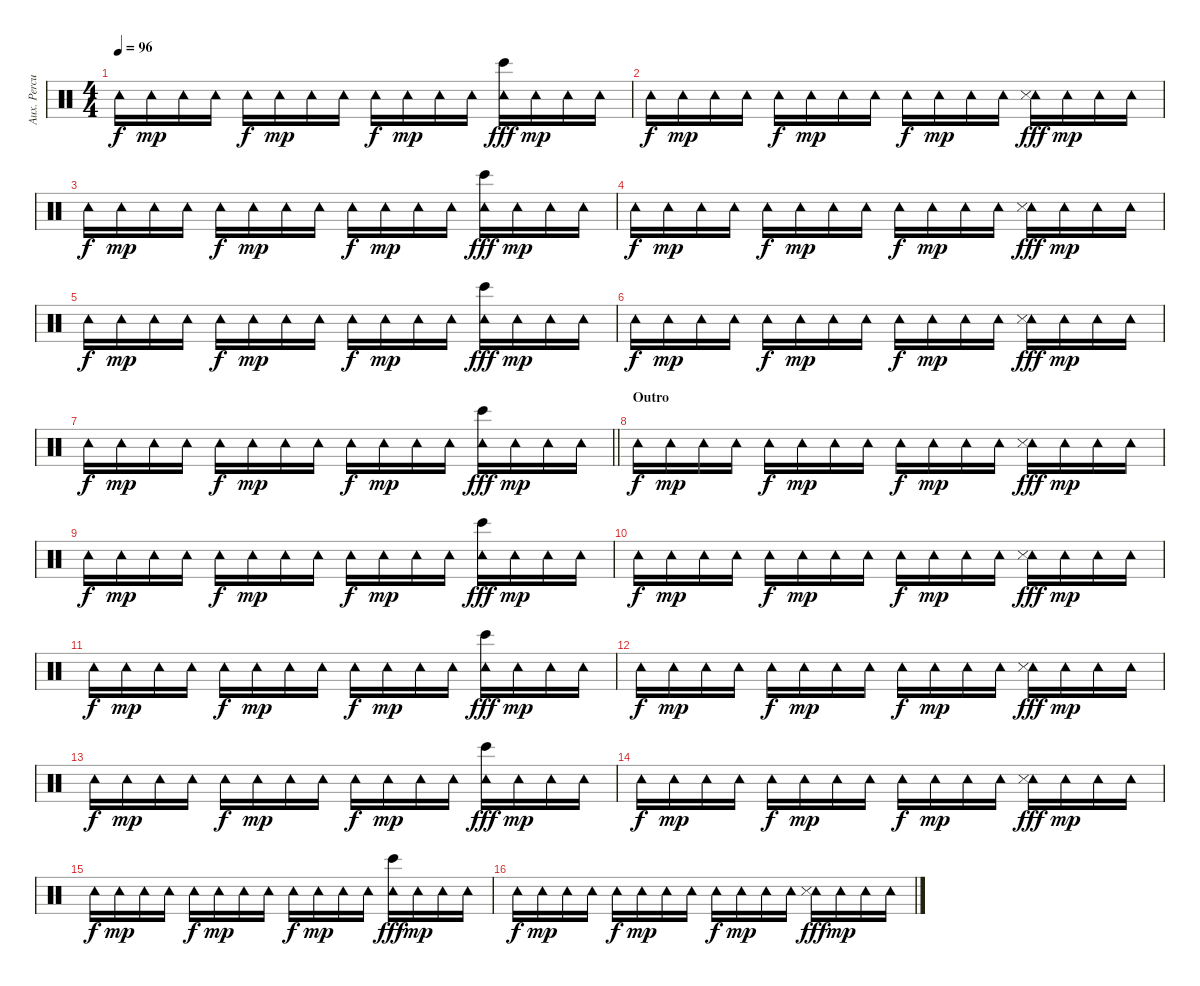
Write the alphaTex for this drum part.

\track ("Aux. Percussion" "Aux. Percu") {instrument percussion}
\staff {score}
\articulation defaults
\ts (4 4)
\tempo 96
\clef neutral
\ks c "Tambourine (hit)".16{dy f} "Tambourine (hit)".16{dy mp} "Tambourine (hit)".16 "Tambourine (hit)".16 "Tambourine (hit)".16{dy f} "Tambourine (hit)".16{dy mp} "Tambourine (hit)".16 "Tambourine (hit)".16 "Tambourine (hit)".16{dy f} "Tambourine (hit)".16{dy mp} "Tambourine (hit)".16 "Tambourine (hit)".16
("Tambourine (hit)" "Bongo High (hit)").16{dy fff} "Tambourine (hit)".16{dy mp} "Tambourine (hit)".16 "Tambourine (hit)".16 |
"Tambourine (hit)".16{dy f} "Tambourine (hit)".16{dy mp} "Tambourine (hit)".16 "Tambourine (hit)".16 "Tambourine (hit)".16{dy f} "Tambourine (hit)".16{dy mp} "Tambourine (hit)".16 "Tambourine (hit)".16 "Tambourine (hit)".16{dy f} "Tambourine (hit)".16{dy mp} "Tambourine (hit)".16 "Tambourine (hit)".16 ("Tambourine (hit)" "Snare (side stick) 3").16{dy fff} "Tambourine (hit)".16{dy mp} "Tambourine (hit)".16 "Tambourine (hit)".16 |
"Tambourine (hit)".16{dy f} "Tambourine (hit)".16{dy mp} "Tambourine (hit)".16 "Tambourine (hit)".16 "Tambourine (hit)".16{dy f} "Tambourine (hit)".16{dy mp} "Tambourine (hit)".16 "Tambourine (hit)".16 "Tambourine (hit)".16{dy f} "Tambourine (hit)".16{dy mp} "Tambourine (hit)".16 "Tambourine (hit)".16 ("Tambourine (hit)" "Bongo High (hit)").16{dy fff} "Tambourine (hit)".16{dy mp} "Tambourine (hit)".16 "Tambourine (hit)".16 |
"Tambourine (hit)".16{dy f} "Tambourine (hit)".16{dy mp} "Tambourine (hit)".16 "Tambourine (hit)".16 "Tambourine (hit)".16{dy f} "Tambourine (hit)".16{dy mp} "Tambourine (hit)".16 "Tambourine (hit)".16 "Tambourine (hit)".16{dy f} "Tambourine (hit)".16{dy mp} "Tambourine (hit)".16 "Tambourine (hit)".16 ("Tambourine (hit)" "Snare (side stick) 3").16{dy fff} "Tambourine (hit)".16{dy mp} "Tambourine (hit)".16 "Tambourine (hit)".16 |
"Tambourine (hit)".16{dy f} "Tambourine (hit)".16{dy mp} "Tambourine (hit)".16 "Tambourine (hit)".16 "Tambourine (hit)".16{dy f} "Tambourine (hit)".16{dy mp} "Tambourine (hit)".16 "Tambourine (hit)".16 "Tambourine (hit)".16{dy f} "Tambourine (hit)".16{dy mp} "Tambourine (hit)".16 "Tambourine (hit)".16 ("Tambourine (hit)" "Bongo High (hit)").16{dy fff} "Tambourine (hit)".16{dy mp} "Tambourine (hit)".16 "Tambourine (hit)".16 |
"Tambourine (hit)".16{dy f} "Tambourine (hit)".16{dy mp} "Tambourine (hit)".16 "Tambourine (hit)".16 "Tambourine (hit)".16{dy f} "Tambourine (hit)".16{dy mp} "Tambourine (hit)".16 "Tambourine (hit)".16 "Tambourine (hit)".16{dy f} "Tambourine (hit)".16{dy mp} "Tambourine (hit)".16 "Tambourine (hit)".16 ("Tambourine (hit)" "Snare (side stick) 3").16{dy fff} "Tambourine (hit)".16{dy mp} "Tambourine (hit)".16 "Tambourine (hit)".16 |
\barLineRight lightlight "Tambourine (hit)".16{dy f} "Tambourine (hit)".16{dy mp} "Tambourine (hit)".16 "Tambourine (hit)".16 "Tambourine (hit)".16{dy f} "Tambourine (hit)".16{dy mp} "Tambourine (hit)".16 "Tambourine (hit)".16 "Tambourine (hit)".16{dy f} "Tambourine (hit)".16{dy mp} "Tambourine (hit)".16 "Tambourine (hit)".16
("Tambourine (hit)" "Bongo High (hit)").16{dy fff} "Tambourine (hit)".16{dy mp} "Tambourine (hit)".16 "Tambourine (hit)".16 |
\section ("" "Outro")
"Tambourine (hit)".16{dy f} "Tambourine (hit)".16{dy mp} "Tambourine (hit)".16 "Tambourine (hit)".16 "Tambourine (hit)".16{dy f} "Tambourine (hit)".16{dy mp} "Tambourine (hit)".16 "Tambourine (hit)".16 "Tambourine (hit)".16{dy f} "Tambourine (hit)".16{dy mp} "Tambourine (hit)".16 "Tambourine (hit)".16 ("Tambourine (hit)" "Snare (side stick) 3").16{dy fff} "Tambourine (hit)".16{dy mp} "Tambourine (hit)".16 "Tambourine (hit)".16 |
"Tambourine (hit)".16{dy f} "Tambourine (hit)".16{dy mp} "Tambourine (hit)".16 "Tambourine (hit)".16 "Tambourine (hit)".16{dy f} "Tambourine (hit)".16{dy mp} "Tambourine (hit)".16 "Tambourine (hit)".16 "Tambourine (hit)".16{dy f} "Tambourine (hit)".16{dy mp} "Tambourine (hit)".16 "Tambourine (hit)".16 ("Tambourine (hit)" "Bongo High (hit)").16{dy fff} "Tambourine (hit)".16{dy mp} "Tambourine (hit)".16 "Tambourine (hit)".16 |
"Tambourine (hit)".16{dy f} "Tambourine (hit)".16{dy mp} "Tambourine (hit)".16 "Tambourine (hit)".16 "Tambourine (hit)".16{dy f} "Tambourine (hit)".16{dy mp} "Tambourine (hit)".16 "Tambourine (hit)".16 "Tambourine (hit)".16{dy f} "Tambourine (hit)".16{dy mp} "Tambourine (hit)".16 "Tambourine (hit)".16 ("Tambourine (hit)" "Snare (side stick) 3").16{dy fff} "Tambourine (hit)".16{dy mp} "Tambourine (hit)".16 "Tambourine (hit)".16 |
"Tambourine (hit)".16{dy f} "Tambourine (hit)".16{dy mp} "Tambourine (hit)".16 "Tambourine (hit)".16 "Tambourine (hit)".16{dy f} "Tambourine (hit)".16{dy mp} "Tambourine (hit)".16 "Tambourine (hit)".16 "Tambourine (hit)".16{dy f} "Tambourine (hit)".16{dy mp} "Tambourine (hit)".16 "Tambourine (hit)".16 ("Tambourine (hit)" "Bongo High (hit)").16{dy fff} "Tambourine (hit)".16{dy mp} "Tambourine (hit)".16 "Tambourine (hit)".16 |
"Tambourine (hit)".16{dy f} "Tambourine (hit)".16{dy mp} "Tambourine (hit)".16 "Tambourine (hit)".16 "Tambourine (hit)".16{dy f} "Tambourine (hit)".16{dy mp} "Tambourine (hit)".16 "Tambourine (hit)".16 "Tambourine (hit)".16{dy f} "Tambourine (hit)".16{dy mp} "Tambourine (hit)".16 "Tambourine (hit)".16 ("Tambourine (hit)" "Snare (side stick) 3").16{dy fff} "Tambourine (hit)".16{dy mp} "Tambourine (hit)".16 "Tambourine (hit)".16 |
"Tambourine (hit)".16{dy f} "Tambourine (hit)".16{dy mp} "Tambourine (hit)".16 "Tambourine (hit)".16 "Tambourine (hit)".16{dy f} "Tambourine (hit)".16{dy mp} "Tambourine (hit)".16 "Tambourine (hit)".16 "Tambourine (hit)".16{dy f} "Tambourine (hit)".16{dy mp} "Tambourine (hit)".16 "Tambourine (hit)".16 ("Tambourine (hit)" "Bongo High (hit)").16{dy fff} "Tambourine (hit)".16{dy mp} "Tambourine (hit)".16 "Tambourine (hit)".16 |
"Tambourine (hit)".16{dy f} "Tambourine (hit)".16{dy mp} "Tambourine (hit)".16 "Tambourine (hit)".16 "Tambourine (hit)".16{dy f} "Tambourine (hit)".16{dy mp} "Tambourine (hit)".16 "Tambourine (hit)".16 "Tambourine (hit)".16{dy f} "Tambourine (hit)".16{dy mp} "Tambourine (hit)".16 "Tambourine (hit)".16 ("Tambourine (hit)" "Snare (side stick) 3").16{dy fff} "Tambourine (hit)".16{dy mp} "Tambourine (hit)".16 "Tambourine (hit)".16 |
"Tambourine (hit)".16{dy f} "Tambourine (hit)".16{dy mp} "Tambourine (hit)".16 "Tambourine (hit)".16 "Tambourine (hit)".16{dy f} "Tambourine (hit)".16{dy mp} "Tambourine (hit)".16 "Tambourine (hit)".16 "Tambourine (hit)".16{dy f} "Tambourine (hit)".16{dy mp} "Tambourine (hit)".16 "Tambourine (hit)".16 ("Tambourine (hit)" "Bongo High (hit)").16{dy fff} "Tambourine (hit)".16{dy mp} "Tambourine (hit)".16 "Tambourine (hit)".16 |
"Tambourine (hit)".16{dy f} "Tambourine (hit)".16{dy mp} "Tambourine (hit)".16 "Tambourine (hit)".16 "Tambourine (hit)".16{dy f} "Tambourine (hit)".16{dy mp} "Tambourine (hit)".16 "Tambourine (hit)".16 "Tambourine (hit)".16{dy f} "Tambourine (hit)".16{dy mp} "Tambourine (hit)".16 "Tambourine (hit)".16 ("Tambourine (hit)" "Snare (side stick) 3").16{dy fff} "Tambourine (hit)".16{dy mp} "Tambourine (hit)".16 "Tambourine (hit)".16
